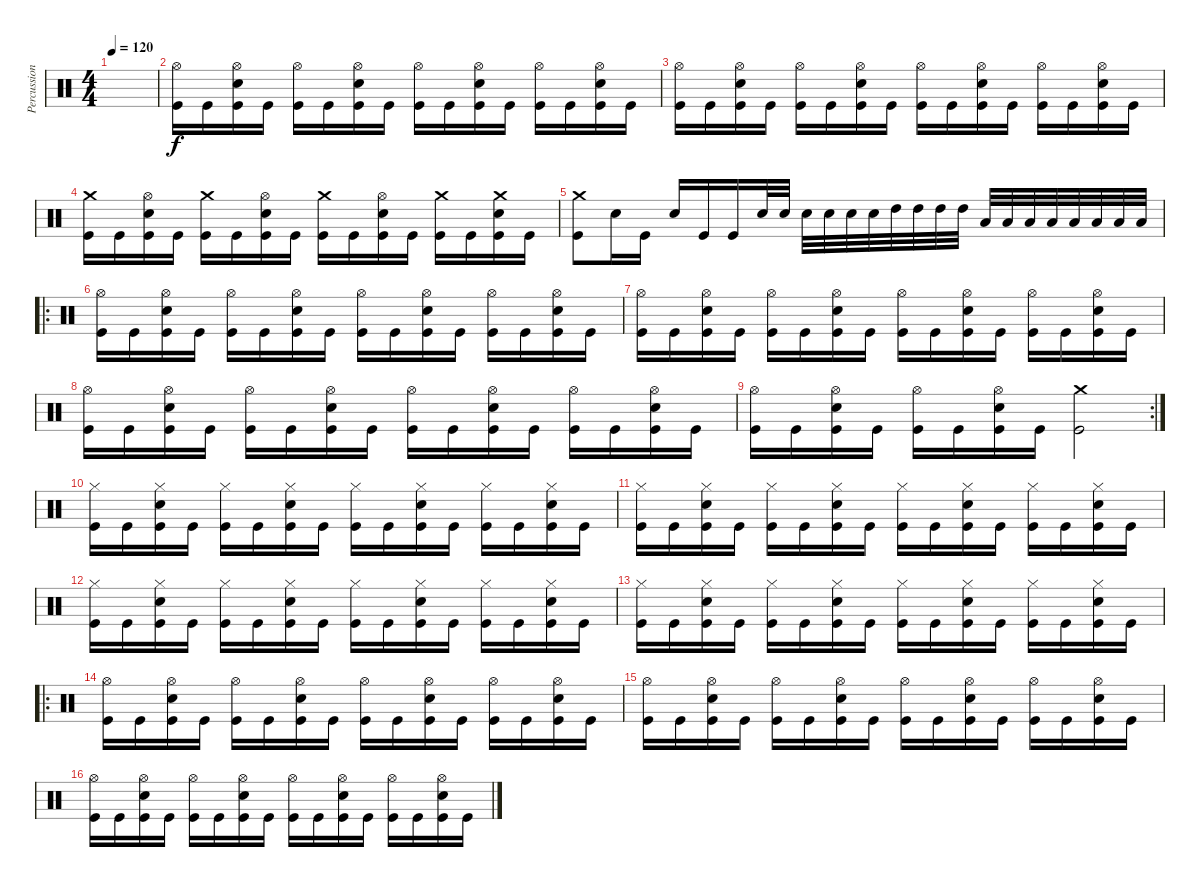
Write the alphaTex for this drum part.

\track ("Percussion" "Percussion") {instrument percussion}
\staff {score}
\articulation defaults
\ts (4 4)
\tempo 120
\clef neutral
\ks c
|
("Hi-Hat (open)" "Kick (hit)").16 "Kick (hit)".16 ("Hi-Hat (open)" "Snare (hit) 2" "Kick (hit)").16 "Kick (hit)".16 ("Hi-Hat (open)" "Kick (hit)").16 "Kick (hit)".16 ("Hi-Hat (open)" "Snare (hit) 2" "Kick (hit)").16 "Kick (hit)".16 ("Hi-Hat (open)" "Kick (hit)").16 "Kick (hit)".16 ("Hi-Hat (open)" "Snare (hit) 2" "Kick (hit)").16 "Kick (hit)".16 ("Hi-Hat (open)" "Kick (hit)").16 "Kick (hit)".16 ("Hi-Hat (open)" "Snare (hit) 2" "Kick (hit)").16 "Kick (hit)".16 |
("Hi-Hat (open)" "Kick (hit)").16 "Kick (hit)".16 ("Hi-Hat (open)" "Snare (hit) 2" "Kick (hit)").16 "Kick (hit)".16 ("Hi-Hat (open)" "Kick (hit)").16 "Kick (hit)".16 ("Hi-Hat (open)" "Snare (hit) 2" "Kick (hit)").16 "Kick (hit)".16 ("Hi-Hat (open)" "Kick (hit)").16 "Kick (hit)".16 ("Hi-Hat (open)" "Snare (hit) 2" "Kick (hit)").16 "Kick (hit)".16 ("Hi-Hat (open)" "Kick (hit)").16 "Kick (hit)".16 ("Hi-Hat (open)" "Snare (hit) 2" "Kick (hit)").16 "Kick (hit)".16 |
("Crash medium (hit)" "Kick (hit)").16 "Kick (hit)".16 ("Hi-Hat (open)" "Snare (hit) 2" "Kick (hit)").16 "Kick (hit)".16 ("Crash medium (hit)" "Kick (hit)").16 "Kick (hit)".16 ("Hi-Hat (open)" "Snare (hit) 2" "Kick (hit)").16 "Kick (hit)".16 ("Crash medium (hit)" "Kick (hit)").16 "Kick (hit)".16 ("Hi-Hat (open)" "Snare (hit) 2" "Kick (hit)").16 "Kick (hit)".16 ("Crash medium (hit)" "Kick (hit)").16 "Kick (hit)".16 ("Crash medium (hit)" "Snare (hit) 2" "Kick (hit)").16 "Kick (hit)".16 |
("Crash medium (hit)" "Kick (hit)").8 "Snare (hit) 2".16 "Kick (hit)".16 "Snare (hit) 2".16 "Kick (hit)".16 "Kick (hit)".16 "Snare (hit) 2".32 "Snare (hit) 2".32 "Snare (hit) 2".32 "Snare (hit) 2".32 "Snare (hit) 2".32 "Snare (hit) 2".32 "High Tom (hit)".32 "High Tom (hit)".32 "High Tom (hit)".32 "High Tom (hit)".32 "Low Tom (hit)".32 "Low Tom (hit)".32 "Low Tom (hit)".32 "Low Tom (hit)".32 "Low Floor Tom (hit)".32 "Low Floor Tom (hit)".32 "Low Floor Tom (hit)".32 "Low Floor Tom (hit)".32 |
\ro
("Hi-Hat (open)" "Kick (hit)").16 "Kick (hit)".16 ("Hi-Hat (open)" "Snare (hit) 2" "Kick (hit)").16 "Kick (hit)".16 ("Hi-Hat (open)" "Kick (hit)").16 "Kick (hit)".16 ("Hi-Hat (open)" "Snare (hit) 2" "Kick (hit)").16 "Kick (hit)".16 ("Hi-Hat (open)" "Kick (hit)").16 "Kick (hit)".16 ("Hi-Hat (open)" "Snare (hit) 2" "Kick (hit)").16 "Kick (hit)".16 ("Hi-Hat (open)" "Kick (hit)").16 "Kick (hit)".16 ("Hi-Hat (open)" "Snare (hit) 2" "Kick (hit)").16 "Kick (hit)".16 |
("Hi-Hat (open)" "Kick (hit)").16 "Kick (hit)".16 ("Hi-Hat (open)" "Snare (hit) 2" "Kick (hit)").16 "Kick (hit)".16 ("Hi-Hat (open)" "Kick (hit)").16 "Kick (hit)".16 ("Hi-Hat (open)" "Snare (hit) 2" "Kick (hit)").16 "Kick (hit)".16 ("Hi-Hat (open)" "Kick (hit)").16 "Kick (hit)".16 ("Hi-Hat (open)" "Snare (hit) 2" "Kick (hit)").16 "Kick (hit)".16 ("Hi-Hat (open)" "Kick (hit)").16 "Kick (hit)".16 ("Hi-Hat (open)" "Snare (hit) 2" "Kick (hit)").16 "Kick (hit)".16 |
("Hi-Hat (open)" "Kick (hit)").16 "Kick (hit)".16 ("Hi-Hat (open)" "Snare (hit) 2" "Kick (hit)").16 "Kick (hit)".16 ("Hi-Hat (open)" "Kick (hit)").16 "Kick (hit)".16 ("Hi-Hat (open)" "Snare (hit) 2" "Kick (hit)").16 "Kick (hit)".16 ("Hi-Hat (open)" "Kick (hit)").16 "Kick (hit)".16 ("Hi-Hat (open)" "Snare (hit) 2" "Kick (hit)").16 "Kick (hit)".16 ("Hi-Hat (open)" "Kick (hit)").16 "Kick (hit)".16 ("Hi-Hat (open)" "Snare (hit) 2" "Kick (hit)").16 "Kick (hit)".16 |
\rc 2
("Hi-Hat (open)" "Kick (hit)").16 "Kick (hit)".16 ("Hi-Hat (open)" "Snare (hit) 2" "Kick (hit)").16 "Kick (hit)".16 ("Hi-Hat (open)" "Kick (hit)").16 "Kick (hit)".16 ("Hi-Hat (open)" "Snare (hit) 2" "Kick (hit)").16 "Kick (hit)".16 ("Crash medium (hit)" "Kick (hit)").2 |
("Hi-Hat (closed)" "Kick (hit)").16 "Kick (hit)".16 ("Hi-Hat (closed)" "Snare (hit) 2" "Kick (hit)").16 "Kick (hit)".16 ("Hi-Hat (closed)" "Kick (hit)").16 "Kick (hit)".16 ("Hi-Hat (closed)" "Snare (hit) 2" "Kick (hit)").16 "Kick (hit)".16 ("Hi-Hat (closed)" "Kick (hit)").16 "Kick (hit)".16 ("Hi-Hat (closed)" "Snare (hit) 2" "Kick (hit)").16 "Kick (hit)".16 ("Hi-Hat (closed)" "Kick (hit)").16 "Kick (hit)".16 ("Hi-Hat (closed)" "Snare (hit) 2" "Kick (hit)").16 "Kick (hit)".16 |
("Hi-Hat (closed)" "Kick (hit)").16 "Kick (hit)".16 ("Hi-Hat (closed)" "Snare (hit) 2" "Kick (hit)").16 "Kick (hit)".16 ("Hi-Hat (closed)" "Kick (hit)").16 "Kick (hit)".16 ("Hi-Hat (closed)" "Snare (hit) 2" "Kick (hit)").16 "Kick (hit)".16 ("Hi-Hat (closed)" "Kick (hit)").16 "Kick (hit)".16 ("Hi-Hat (closed)" "Snare (hit) 2" "Kick (hit)").16 "Kick (hit)".16 ("Hi-Hat (closed)" "Kick (hit)").16 "Kick (hit)".16 ("Hi-Hat (closed)" "Snare (hit) 2" "Kick (hit)").16 "Kick (hit)".16 |
("Hi-Hat (closed)" "Kick (hit)").16 "Kick (hit)".16 ("Hi-Hat (closed)" "Snare (hit) 2" "Kick (hit)").16 "Kick (hit)".16 ("Hi-Hat (closed)" "Kick (hit)").16 "Kick (hit)".16 ("Hi-Hat (closed)" "Snare (hit) 2" "Kick (hit)").16 "Kick (hit)".16 ("Hi-Hat (closed)" "Kick (hit)").16 "Kick (hit)".16 ("Hi-Hat (closed)" "Snare (hit) 2" "Kick (hit)").16 "Kick (hit)".16 ("Hi-Hat (closed)" "Kick (hit)").16 "Kick (hit)".16 ("Hi-Hat (closed)" "Snare (hit) 2" "Kick (hit)").16 "Kick (hit)".16 |
("Hi-Hat (closed)" "Kick (hit)").16 "Kick (hit)".16 ("Hi-Hat (closed)" "Snare (hit) 2" "Kick (hit)").16 "Kick (hit)".16 ("Hi-Hat (closed)" "Kick (hit)").16 "Kick (hit)".16 ("Hi-Hat (closed)" "Snare (hit) 2" "Kick (hit)").16 "Kick (hit)".16 ("Hi-Hat (closed)" "Kick (hit)").16 "Kick (hit)".16 ("Hi-Hat (closed)" "Snare (hit) 2" "Kick (hit)").16 "Kick (hit)".16 ("Hi-Hat (closed)" "Kick (hit)").16 "Kick (hit)".16 ("Hi-Hat (closed)" "Snare (hit) 2" "Kick (hit)").16 "Kick (hit)".16 |
\ro
("Hi-Hat (open)" "Kick (hit)").16 "Kick (hit)".16 ("Hi-Hat (open)" "Snare (hit) 2" "Kick (hit)").16 "Kick (hit)".16 ("Hi-Hat (open)" "Kick (hit)").16 "Kick (hit)".16 ("Hi-Hat (open)" "Snare (hit) 2" "Kick (hit)").16 "Kick (hit)".16 ("Hi-Hat (open)" "Kick (hit)").16 "Kick (hit)".16 ("Hi-Hat (open)" "Snare (hit) 2" "Kick (hit)").16 "Kick (hit)".16 ("Hi-Hat (open)" "Kick (hit)").16 "Kick (hit)".16 ("Hi-Hat (open)" "Snare (hit) 2" "Kick (hit)").16 "Kick (hit)".16 |
("Hi-Hat (open)" "Kick (hit)").16 "Kick (hit)".16 ("Hi-Hat (open)" "Snare (hit) 2" "Kick (hit)").16 "Kick (hit)".16 ("Hi-Hat (open)" "Kick (hit)").16 "Kick (hit)".16 ("Hi-Hat (open)" "Snare (hit) 2" "Kick (hit)").16 "Kick (hit)".16 ("Hi-Hat (open)" "Kick (hit)").16 "Kick (hit)".16 ("Hi-Hat (open)" "Snare (hit) 2" "Kick (hit)").16 "Kick (hit)".16 ("Hi-Hat (open)" "Kick (hit)").16 "Kick (hit)".16 ("Hi-Hat (open)" "Snare (hit) 2" "Kick (hit)").16 "Kick (hit)".16 |
("Hi-Hat (open)" "Kick (hit)").16 "Kick (hit)".16 ("Hi-Hat (open)" "Snare (hit) 2" "Kick (hit)").16 "Kick (hit)".16 ("Hi-Hat (open)" "Kick (hit)").16 "Kick (hit)".16 ("Hi-Hat (open)" "Snare (hit) 2" "Kick (hit)").16 "Kick (hit)".16 ("Hi-Hat (open)" "Kick (hit)").16 "Kick (hit)".16 ("Hi-Hat (open)" "Snare (hit) 2" "Kick (hit)").16 "Kick (hit)".16 ("Hi-Hat (open)" "Kick (hit)").16 "Kick (hit)".16 ("Hi-Hat (open)" "Snare (hit) 2" "Kick (hit)").16 "Kick (hit)".16
